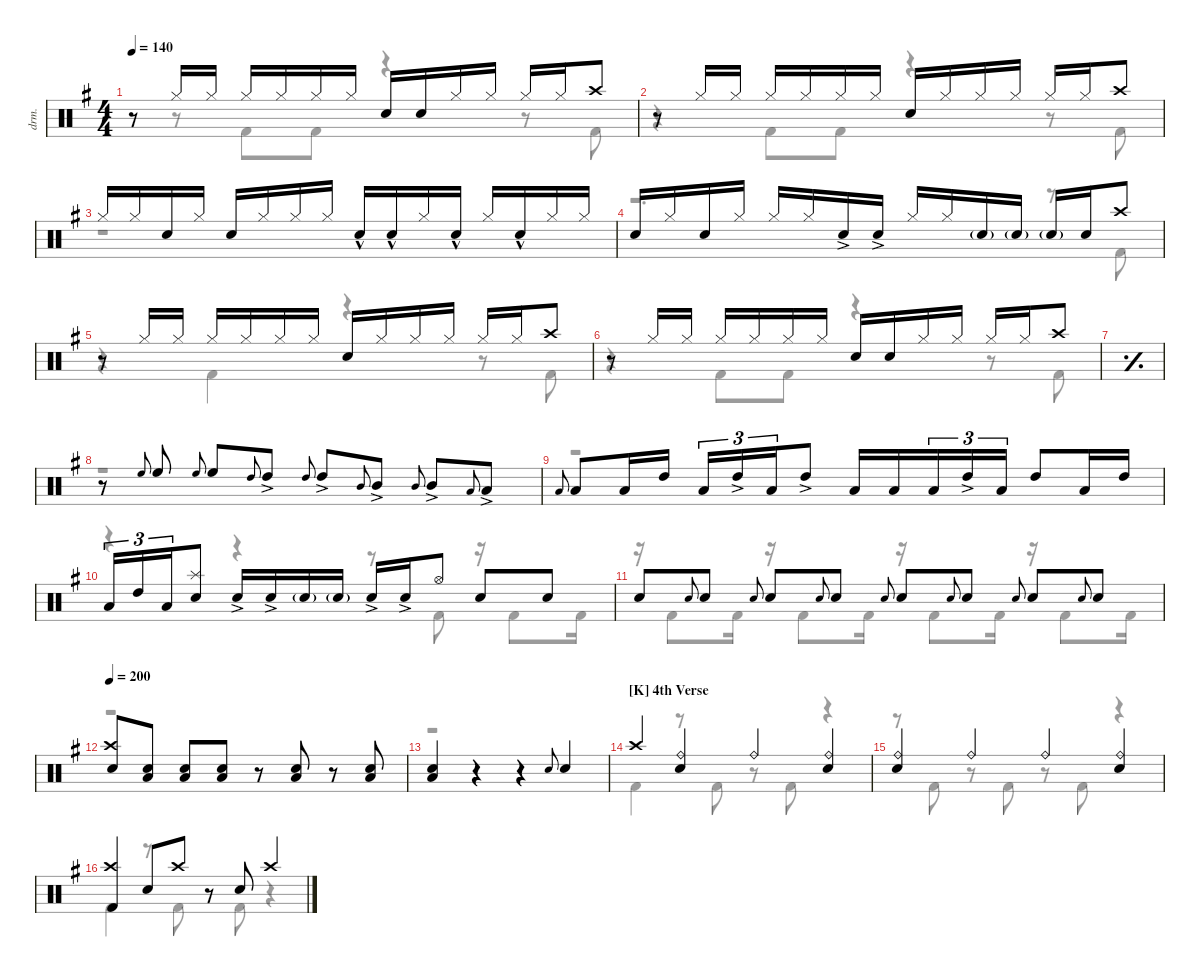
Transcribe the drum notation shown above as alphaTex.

\defaultSystemsLayout 4
\hideDynamics
\bracketExtendMode nobrackets
\track ("Drums" "drm.") {instrument percussion}
\staff {score}
\articulation defaults
\voice
\ts (4 4)
\tempo 140
\clef neutral
\ks g
r.8{dy mf} "Hi-Hat (closed)"{acc forcenatural}.16 "Hi-Hat (closed)"{acc forcenatural}.16 "Hi-Hat (closed)"{acc forcenatural}.16 "Hi-Hat (closed)"{acc forcenatural}.16 "Hi-Hat (closed)"{acc forcenatural}.16 "Hi-Hat (closed)"{acc forcenatural}.16 "Snare (hit) 2"{acc forcenatural}.16 "Snare (hit) 2"{acc forcenatural}.16 "Hi-Hat (closed)"{acc forcenatural}.16 "Hi-Hat (closed)"{acc forcenatural}.16 "Hi-Hat (closed)"{acc forcenatural}.16 "Hi-Hat (closed)"{acc forcenatural}.16 "Crash high (hit)"{acc forcenatural}.8 |
r.8 "Hi-Hat (closed)"{acc forcenatural}.16 "Hi-Hat (closed)"{acc forcenatural}.16 "Hi-Hat (closed)"{acc forcenatural}.16 "Hi-Hat (closed)"{acc forcenatural}.16 "Hi-Hat (closed)"{acc forcenatural}.16 "Hi-Hat (closed)"{acc forcenatural}.16 "Snare (hit) 2"{acc forcenatural}.16 "Hi-Hat (closed)"{acc forcenatural}.16 "Hi-Hat (closed)"{acc forcenatural}.16 "Hi-Hat (closed)"{acc forcenatural}.16 "Hi-Hat (closed)"{acc forcenatural}.16 "Hi-Hat (closed)"{acc forcenatural}.16 "Crash high (hit)"{acc forcenatural}.8 |
"Hi-Hat (closed)"{acc forcenatural}.16 "Hi-Hat (closed)"{acc forcenatural}.16 "Snare (hit) 2"{acc forcenatural}.16 "Hi-Hat (closed)"{acc forcenatural}.16 "Snare (hit) 2"{acc forcenatural}.16 "Hi-Hat (closed)"{acc forcenatural}.16 "Hi-Hat (closed)"{acc forcenatural}.16 "Hi-Hat (closed)"{acc forcenatural}.16 "Snare (hit) 2"{hac acc forcenatural}.16 "Snare (hit) 2"{hac acc forcenatural}.16 "Hi-Hat (closed)"{acc forcenatural}.16 "Snare (hit) 2"{hac acc forcenatural}.16 "Hi-Hat (closed)"{acc forcenatural}.16 "Snare (hit) 2"{hac acc forcenatural}.16 "Hi-Hat (closed)"{acc forcenatural}.16 "Hi-Hat (closed)"{acc forcenatural}.16 |
"Snare (hit) 2"{acc forcenatural}.16 "Hi-Hat (closed)"{acc forcenatural}.16 "Snare (hit) 2"{acc forcenatural}.16 "Hi-Hat (closed)"{acc forcenatural}.16 "Hi-Hat (closed)"{acc forcenatural}.16 "Hi-Hat (closed)"{acc forcenatural}.16 "Snare (hit) 2"{ac acc forcenatural}.16 "Snare (hit) 2"{ac acc forcenatural}.16 "Hi-Hat (closed)"{acc forcenatural}.16 "Hi-Hat (closed)"{acc forcenatural}.16 "Snare (hit) 2"{g acc forcenatural}.16 "Snare (hit) 2"{g acc forcenatural}.16 "Snare (hit) 2"{g acc forcenatural}.16 "Snare (hit) 2"{acc forcenatural}.16 "Crash high (hit)"{acc forcenatural}.8 |
r.8 "Hi-Hat (closed)"{acc forcenatural}.16 "Hi-Hat (closed)"{acc forcenatural}.16 "Hi-Hat (closed)"{acc forcenatural}.16 "Hi-Hat (closed)"{acc forcenatural}.16 "Hi-Hat (closed)"{acc forcenatural}.16 "Hi-Hat (closed)"{acc forcenatural}.16 "Snare (hit) 2"{acc forcenatural}.16 "Hi-Hat (closed)"{acc forcenatural}.16 "Hi-Hat (closed)"{acc forcenatural}.16 "Hi-Hat (closed)"{acc forcenatural}.16 "Hi-Hat (closed)"{acc forcenatural}.16 "Hi-Hat (closed)"{acc forcenatural}.16 "Crash high (hit)"{acc forcenatural}.8 |
r.8 "Hi-Hat (closed)"{acc forcenatural}.16 "Hi-Hat (closed)"{acc forcenatural}.16 "Hi-Hat (closed)"{acc forcenatural}.16 "Hi-Hat (closed)"{acc forcenatural}.16 "Hi-Hat (closed)"{acc forcenatural}.16 "Hi-Hat (closed)"{acc forcenatural}.16 "Snare (hit) 2"{acc forcenatural}.16 "Snare (hit) 2"{acc forcenatural}.16 "Hi-Hat (closed)"{acc forcenatural}.16 "Hi-Hat (closed)"{acc forcenatural}.16 "Hi-Hat (closed)"{acc forcenatural}.16 "Hi-Hat (closed)"{acc forcenatural}.16 "Crash high (hit)"{acc forcenatural}.8 |
\simile simple
|
\simile none
r.8 "High Floor Tom (hit)"{acc forcenatural}.8{gr onbeat} "High Floor Tom (hit)"{acc forcenatural}.8 "High Floor Tom (hit)"{acc forcenatural}.8{gr onbeat} "High Floor Tom (hit)"{acc forcenatural}.8 "High Tom (hit)"{acc forcenatural}.8{gr onbeat} "High Tom (hit)"{ac acc forcenatural}.8 "High Tom (hit)"{acc forcenatural}.8{gr onbeat} "High Tom (hit)"{ac acc forcenatural}.8 "Mid Tom (hit)"{acc forcenatural}.8{gr onbeat} "Mid Tom (hit)"{ac acc forcenatural}.8 "Mid Tom (hit)"{acc forcenatural}.8{gr onbeat} "Mid Tom (hit)"{ac acc forcenatural}.8 "Low Tom (hit)"{acc forcenatural}.8{gr onbeat} "Low Tom (hit)"{ac acc forcenatural}.8 |
"Low Tom (hit)"{acc forcenatural}.8{gr onbeat} "Low Tom (hit)"{acc forcenatural}.8 "Low Tom (hit)"{acc forcenatural}.16 "High Tom (hit)"{acc forcenatural}.16 "Low Tom (hit)"{acc forcenatural}.16{tu (3 2)} "High Tom (hit)"{ac acc forcenatural}.16{tu (3 2)} "Low Tom (hit)"{acc forcenatural}.16{tu (3 2) beam merge} "High Tom (hit)"{ac acc forcenatural}.8 "Low Tom (hit)"{acc forcenatural}.16 "Low Tom (hit)"{acc forcenatural}.16{beam merge} "Low Tom (hit)"{acc forcenatural}.16{tu (3 2)} "High Tom (hit)"{ac acc forcenatural}.16{tu (3 2)} "Low Tom (hit)"{acc forcenatural}.16{tu (3 2)} "High Tom (hit)"{acc forcenatural}.8 "Low Tom (hit)"{acc forcenatural}.16 "High Tom (hit)"{acc forcenatural}.16 |
"Low Tom (hit)"{acc forcenatural}.16{tu (3 2)} "High Tom (hit)"{acc forcenatural}.16{tu (3 2)} "Low Tom (hit)"{acc forcenatural}.16{tu (3 2) beam merge} ("Snare (hit) 2"{acc forcenatural} "Splash (hit)"{acc forcenatural}).8 "Snare (hit) 2"{ac acc forcenatural}.16 "Snare (hit) 2"{ac acc forcenatural}.16 "Snare (hit) 2"{g acc forcenatural}.16 "Snare (hit) 2"{g acc forcenatural}.16 "Snare (hit) 2"{ac acc forcenatural}.16 "Snare (hit) 2"{ac acc forcenatural}.16 "Hi-Hat (open)"{acc forcenatural}.8 "Snare (hit) 2"{acc forcenatural}.8 "Snare (hit) 2"{acc forcenatural}.8 |
"Snare (hit) 2"{acc forcenatural}.8 "Snare (hit) 2"{acc forcenatural}.8{gr onbeat} "Snare (hit) 2"{acc forcenatural}.8 "Snare (hit) 2"{acc forcenatural}.8{gr onbeat} "Snare (hit) 2"{acc forcenatural}.8 "Snare (hit) 2"{acc forcenatural}.8{gr onbeat} "Snare (hit) 2"{acc forcenatural}.8 "Snare (hit) 2"{acc forcenatural}.8{gr onbeat} "Snare (hit) 2"{acc forcenatural}.8 "Snare (hit) 2"{acc forcenatural}.8{gr onbeat} "Snare (hit) 2"{acc forcenatural}.8 "Snare (hit) 2"{acc forcenatural}.8{gr onbeat} "Snare (hit) 2"{acc forcenatural}.8 "Snare (hit) 2"{acc forcenatural}.8{gr onbeat} "Snare (hit) 2"{acc forcenatural}.8 |
\tempo 200
("Snare (hit) 2"{acc forcenatural} "Crash high (hit)"{acc forcenatural}).8 ("Snare (hit) 2"{acc forcenatural} "Low Tom (hit)"{acc forcenatural}).8 ("Low Tom (hit)"{acc forcenatural} "Snare (hit) 2"{acc forcenatural}).8 ("Snare (hit) 2"{acc forcenatural} "Low Tom (hit)"{acc forcenatural}).8 r.8 ("Low Tom (hit)"{acc forcenatural} "Snare (hit) 2"{acc forcenatural}).8 r.8 ("Snare (hit) 2"{acc forcenatural} "Low Tom (hit)"{acc forcenatural}).8 |
("Low Tom (hit)"{acc forcenatural} "Snare (hit) 2"{acc forcenatural}).4 r.4 r.4 "Snare (hit) 2"{acc forcenatural}.8{gr onbeat} "Snare (hit) 2"{acc forcenatural}.4 |
\section ("K" "4th Verse")
"Crash high (hit)"{acc forcenatural}.4 ("Ride (bell)"{acc forcenatural} "Snare (hit) 2"{acc forcenatural}).4 "Ride (bell)"{acc forcenatural}.4 ("Ride (bell)"{acc forcenatural} "Snare (hit) 2"{acc forcenatural}).4 |
("Snare (hit) 2"{acc forcenatural} "Ride (bell)"{acc forcenatural}).4 "Ride (bell)"{acc forcenatural}.4 "Ride (bell)"{acc forcenatural}.4 ("Ride (bell)"{acc forcenatural} "Snare (hit) 2"{acc forcenatural}).4 |
("Crash high (hit)"{acc forcenatural} "Kick (hit) 2"{acc forcenatural}).4 "Snare (hit) 2"{acc forcenatural}.8 "Crash high (hit)"{acc forcenatural}.8 r.8 "Snare (hit) 2"{acc forcenatural}.8 "Crash high (hit)"{acc forcenatural}.4
\voice
\clef neutral
\ottava regular
\simile none
\ks g
r.8{dy mf} r.8 "Kick (hit) 2"{acc forcenatural}.8 "Kick (hit) 2"{acc forcenatural}.8 r.4 r.8 "Kick (hit) 2"{acc forcenatural}.8 |
r.4 "Kick (hit) 2"{acc forcenatural}.8 "Kick (hit) 2"{acc forcenatural}.8 r.4 r.8 "Kick (hit) 2"{acc forcenatural}.8 |
r.1 |
r.2{d} r.8 "Kick (hit) 2"{acc forcenatural}.8 |
r.4 "Kick (hit) 2"{acc forcenatural}.4 r.4 r.8 "Kick (hit) 2"{acc forcenatural}.8 |
r.4 "Kick (hit) 2"{acc forcenatural}.8 "Kick (hit) 2"{acc forcenatural}.8 r.4 r.8 "Kick (hit) 2"{acc forcenatural}.8 |
\simile simple
|
\simile none
r.1 |
r.1 |
r.4 r.4 r.8 "Kick (hit) 2"{acc forcenatural}.8 r.16 "Kick (hit) 2"{acc forcenatural}.8 "Kick (hit) 2"{acc forcenatural}.16 |
r.16 "Kick (hit) 2"{acc forcenatural}.8 "Kick (hit) 2"{acc forcenatural}.16 r.16 "Kick (hit) 2"{acc forcenatural}.8 "Kick (hit) 2"{acc forcenatural}.16 r.16 "Kick (hit) 2"{acc forcenatural}.8 "Kick (hit) 2"{acc forcenatural}.16 r.16 "Kick (hit) 2"{acc forcenatural}.8 "Kick (hit) 2"{acc forcenatural}.16 |
r.1 |
r.1 |
"Kick (hit) 2"{acc forcenatural}.4 r.8 "Kick (hit) 2"{acc forcenatural}.8 r.8 "Kick (hit) 2"{acc forcenatural}.8 r.4 |
r.8 "Kick (hit) 2"{acc forcenatural}.8 r.8 "Kick (hit) 2"{acc forcenatural}.8 r.8 "Kick (hit) 2"{acc forcenatural}.8 r.4 |
"Kick (hit) 2"{acc forcenatural}.4 r.8 "Kick (hit) 2"{acc forcenatural}.8 r.8 "Kick (hit) 2"{acc forcenatural}.8 r.4
